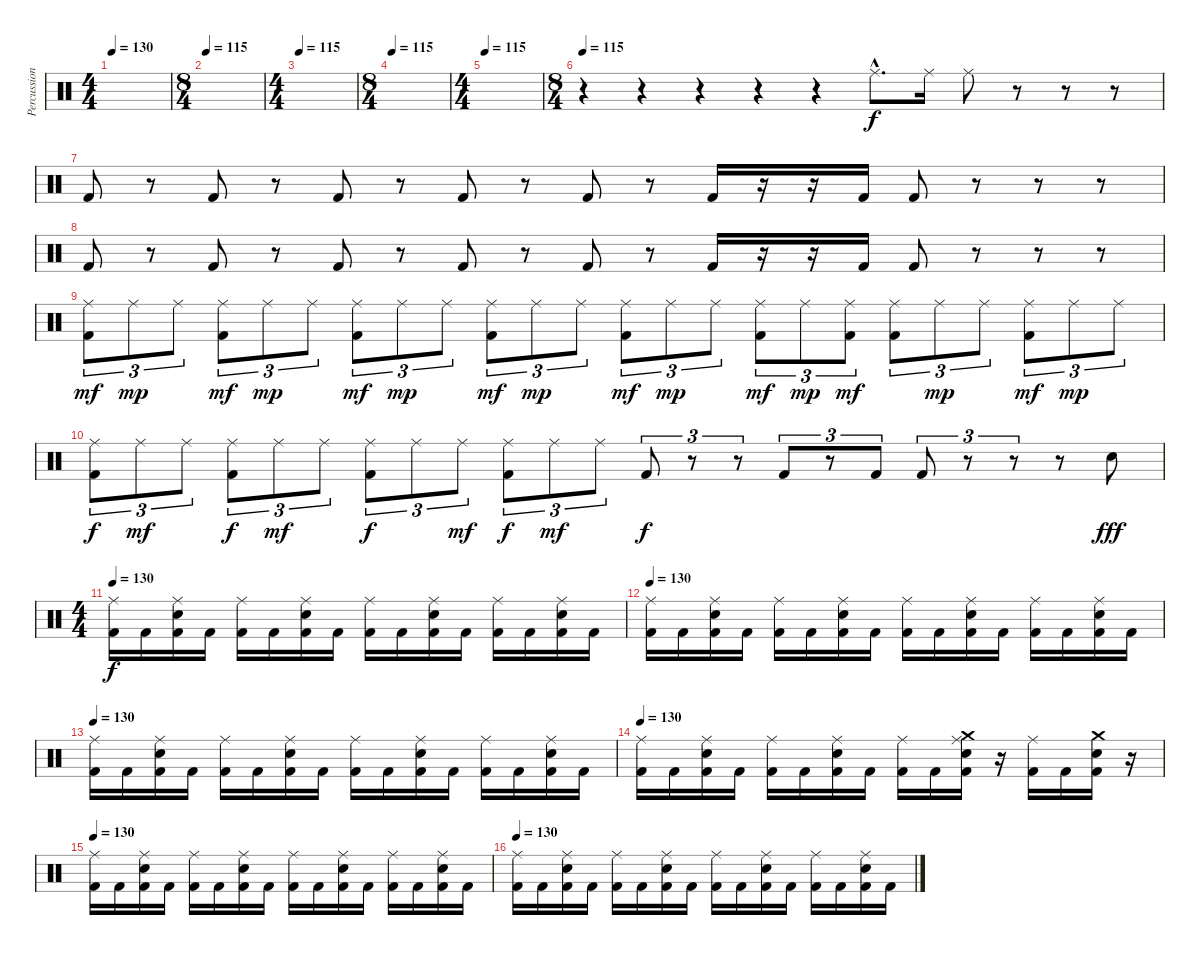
\track ("Percussion" "Percussion") {instrument percussion}
\staff {score}
\articulation defaults
\ts (4 4)
\tempo 130
\tempo 115
\tempo 130
\clef neutral
\ks c
|
\ts (8 4)
\tempo 115
|
\ts (4 4)
\tempo 115
|
\ts (8 4)
\tempo 115
|
\ts (4 4)
\tempo 115
|
\ts (8 4)
\tempo 115
r.4 r.4 r.4 r.4 r.4 "Ride (middle)"{hac}.8{d} "Ride (middle)".16 "Ride (middle)".8 r.8 r.8 r.8 |
"Kick (hit) 2".8 r.8 "Kick (hit) 2".8 r.8 "Kick (hit) 2".8 r.8 "Kick (hit) 2".8 r.8 "Kick (hit) 2".8 r.8 "Kick (hit) 2".16 r.16 r.16 "Kick (hit) 2".16 "Kick (hit) 2".8 r.8 r.8 r.8 |
"Kick (hit) 2".8 r.8 "Kick (hit) 2".8 r.8 "Kick (hit) 2".8 r.8 "Kick (hit) 2".8 r.8 "Kick (hit) 2".8 r.8 "Kick (hit) 2".16 r.16 r.16 "Kick (hit) 2".16 "Kick (hit) 2".8 r.8 r.8 r.8 |
("Ride (middle)" "Kick (hit) 2").8{tu (3 2) dy mf} "Ride (middle)".8{tu (3 2) dy mp} "Ride (middle)".8{tu (3 2)} ("Ride (middle)" "Kick (hit) 2").8{tu (3 2) dy mf} "Ride (middle)".8{tu (3 2) dy mp} "Ride (middle)".8{tu (3 2)} ("Ride (middle)" "Kick (hit) 2").8{tu (3 2) dy mf} "Ride (middle)".8{tu (3 2) dy mp} "Ride (middle)".8{tu (3 2)} ("Ride (middle)" "Kick (hit) 2").8{tu (3 2) dy mf} "Ride (middle)".8{tu (3 2) dy mp} "Ride (middle)".8{tu (3 2)} ("Ride (middle)" "Kick (hit) 2").8{tu (3 2) dy mf} "Ride (middle)".8{tu (3 2) dy mp} "Ride (middle)".8{tu (3 2)} ("Ride (middle)" "Kick (hit) 2").8{tu (3 2) dy mf} "Ride (middle)".8{tu (3 2) dy mp} ("Ride (middle)" "Kick (hit) 2").8{tu (3 2) dy mf} ("Ride (middle)" "Kick (hit) 2").8{tu (3 2)} "Ride (middle)".8{tu (3 2) dy mp} "Ride (middle)".8{tu (3 2)} ("Ride (middle)" "Kick (hit) 2").8{tu (3 2) dy mf} "Ride (middle)".8{tu (3 2) dy mp} "Ride (middle)".8{tu (3 2)} |
("Ride (middle)" "Kick (hit) 2").8{tu (3 2) dy f} "Ride (middle)".8{tu (3 2) dy mf} "Ride (middle)".8{tu (3 2)} ("Ride (middle)" "Kick (hit) 2").8{tu (3 2) dy f} "Ride (middle)".8{tu (3 2) dy mf} "Ride (middle)".8{tu (3 2)} ("Ride (middle)" "Kick (hit) 2").8{tu (3 2) dy f} "Ride (middle)".8{tu (3 2)} "Ride (middle)".8{tu (3 2) dy mf} ("Ride (middle)" "Kick (hit) 2").8{tu (3 2) dy f} "Ride (middle)".8{tu (3 2) dy mf} "Ride (middle)".8{tu (3 2)} "Kick (hit) 2".8{tu (3 2) dy f} r.8{tu (3 2)} r.8{tu (3 2)} "Kick (hit) 2".8{tu (3 2)} r.8{tu (3 2)} "Kick (hit) 2".8{tu (3 2)} "Kick (hit) 2".8{tu (3 2)} r.8{tu (3 2)} r.8{tu (3 2)} r.8 "Snare (hit) 2".8{dy fff} |
\ts (4 4)
\tempo 130
("Ride (middle)" "Kick (hit) 2").16{dy f} "Kick (hit) 2".16 ("Ride (middle)" "Snare (hit) 2" "Kick (hit) 2").16 "Kick (hit) 2".16 ("Ride (middle)" "Kick (hit) 2").16 "Kick (hit) 2".16 ("Ride (middle)" "Snare (hit) 2" "Kick (hit) 2").16 "Kick (hit) 2".16 ("Ride (middle)" "Kick (hit) 2").16 "Kick (hit) 2".16 ("Ride (middle)" "Snare (hit) 2" "Kick (hit) 2").16 "Kick (hit) 2".16 ("Ride (middle)" "Kick (hit) 2").16 "Kick (hit) 2".16 ("Ride (middle)" "Snare (hit) 2" "Kick (hit) 2").16 "Kick (hit) 2".16 |
\tempo 130
("Ride (middle)" "Kick (hit) 2").16 "Kick (hit) 2".16 ("Ride (middle)" "Snare (hit) 2" "Kick (hit) 2").16 "Kick (hit) 2".16 ("Ride (middle)" "Kick (hit) 2").16 "Kick (hit) 2".16 ("Ride (middle)" "Snare (hit) 2" "Kick (hit) 2").16 "Kick (hit) 2".16 ("Ride (middle)" "Kick (hit) 2").16 "Kick (hit) 2".16 ("Ride (middle)" "Snare (hit) 2" "Kick (hit) 2").16 "Kick (hit) 2".16 ("Ride (middle)" "Kick (hit) 2").16 "Kick (hit) 2".16 ("Ride (middle)" "Snare (hit) 2" "Kick (hit) 2").16 "Kick (hit) 2".16 |
\tempo 130
("Ride (middle)" "Kick (hit) 2").16 "Kick (hit) 2".16 ("Ride (middle)" "Snare (hit) 2" "Kick (hit) 2").16 "Kick (hit) 2".16 ("Ride (middle)" "Kick (hit) 2").16 "Kick (hit) 2".16 ("Ride (middle)" "Snare (hit) 2" "Kick (hit) 2").16 "Kick (hit) 2".16 ("Ride (middle)" "Kick (hit) 2").16 "Kick (hit) 2".16 ("Ride (middle)" "Snare (hit) 2" "Kick (hit) 2").16 "Kick (hit) 2".16 ("Ride (middle)" "Kick (hit) 2").16 "Kick (hit) 2".16 ("Ride (middle)" "Snare (hit) 2" "Kick (hit) 2").16 "Kick (hit) 2".16 |
\tempo 130
("Ride (middle)" "Kick (hit) 2").16 "Kick (hit) 2".16 ("Ride (middle)" "Snare (hit) 2" "Kick (hit) 2").16 "Kick (hit) 2".16 ("Ride (middle)" "Kick (hit) 2").16 "Kick (hit) 2".16 ("Ride (middle)" "Snare (hit) 2" "Kick (hit) 2").16 "Kick (hit) 2".16 ("Ride (middle)" "Kick (hit) 2").16 "Kick (hit) 2".16 ("Crash medium (hit)" "Ride (middle)" "Snare (hit) 2" "Kick (hit) 2").16 r.16 ("Ride (middle)" "Kick (hit) 2").16 "Kick (hit) 2".16 ("Crash medium (hit)" "Snare (hit) 2" "Kick (hit) 2").16 r.16 |
\tempo 130
("Ride (middle)" "Kick (hit) 2").16 "Kick (hit) 2".16 ("Ride (middle)" "Snare (hit) 2" "Kick (hit) 2").16 "Kick (hit) 2".16 ("Ride (middle)" "Kick (hit) 2").16 "Kick (hit) 2".16 ("Ride (middle)" "Snare (hit) 2" "Kick (hit) 2").16 "Kick (hit) 2".16 ("Ride (middle)" "Kick (hit) 2").16 "Kick (hit) 2".16 ("Ride (middle)" "Snare (hit) 2" "Kick (hit) 2").16 "Kick (hit) 2".16 ("Ride (middle)" "Kick (hit) 2").16 "Kick (hit) 2".16 ("Ride (middle)" "Snare (hit) 2" "Kick (hit) 2").16 "Kick (hit) 2".16 |
\tempo 130
("Ride (middle)" "Kick (hit) 2").16 "Kick (hit) 2".16 ("Ride (middle)" "Snare (hit) 2" "Kick (hit) 2").16 "Kick (hit) 2".16 ("Ride (middle)" "Kick (hit) 2").16 "Kick (hit) 2".16 ("Ride (middle)" "Snare (hit) 2" "Kick (hit) 2").16 "Kick (hit) 2".16 ("Ride (middle)" "Kick (hit) 2").16 "Kick (hit) 2".16 ("Ride (middle)" "Snare (hit) 2" "Kick (hit) 2").16 "Kick (hit) 2".16 ("Ride (middle)" "Kick (hit) 2").16 "Kick (hit) 2".16 ("Ride (middle)" "Snare (hit) 2" "Kick (hit) 2").16 "Kick (hit) 2".16
